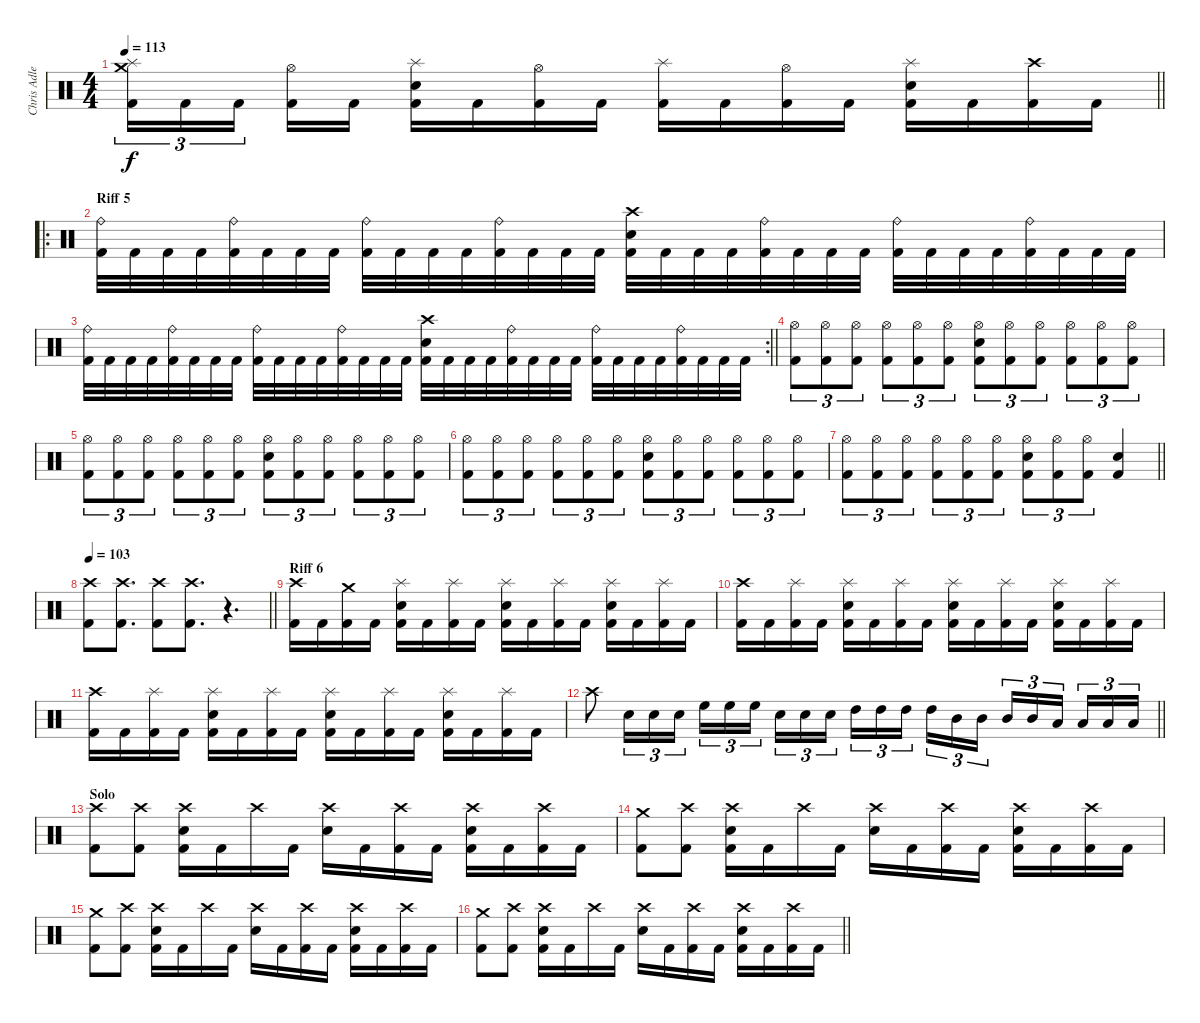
\track ("Chris Adler" "Chris Adle") {instrument percussion}
\staff {score}
\articulation defaults
\ts (4 4)
\tempo 113
\clef neutral
\barLineRight lightlight
\ks c
("Crash medium (hit)" "Splash (hit)" "Kick (hit) 2").16{tu (3 2) dy f} "Kick (hit) 2".16{tu (3 2)} "Kick (hit) 2".16{tu (3 2) beam splitsecondary} ("Hi-Hat (open)" "Kick (hit) 2").16 "Kick (hit) 2".16 ("Splash (hit)" "Electric Snare (hit)" "Kick (hit) 2").16 "Kick (hit) 2".16 ("Hi-Hat (open)" "Kick (hit) 2").16 "Kick (hit) 2".16 ("Splash (hit)" "Kick (hit) 2").16 "Kick (hit) 2".16 ("Hi-Hat (open)" "Kick (hit) 2").16 "Kick (hit) 2".16 ("Splash (hit)" "Electric Snare (hit)" "Kick (hit) 2").16 "Kick (hit) 2".16 ("Crash high (hit)" "Kick (hit) 2").16 "Kick (hit) 2".16 |
\ro
\section ("" "Riff 5")
("Ride (bell)" "Kick (hit) 2").32 "Kick (hit) 2".32 "Kick (hit) 2".32 "Kick (hit) 2".32 ("Ride (bell)" "Kick (hit) 2").32 "Kick (hit) 2".32 "Kick (hit) 2".32 "Kick (hit) 2".32 ("Ride (bell)" "Kick (hit) 2").32 "Kick (hit) 2".32 "Kick (hit) 2".32 "Kick (hit) 2".32 ("Ride (bell)" "Kick (hit) 2").32 "Kick (hit) 2".32 "Kick (hit) 2".32 "Kick (hit) 2".32 ("Crash high (hit)" "Electric Snare (hit)" "Kick (hit) 2").32 "Kick (hit) 2".32 "Kick (hit) 2".32 "Kick (hit) 2".32 ("Ride (bell)" "Kick (hit) 2").32 "Kick (hit) 2".32 "Kick (hit) 2".32 "Kick (hit) 2".32 ("Ride (bell)" "Kick (hit) 2").32 "Kick (hit) 2".32 "Kick (hit) 2".32 "Kick (hit) 2".32 ("Ride (bell)" "Kick (hit) 2").32 "Kick (hit) 2".32 "Kick (hit) 2".32 "Kick (hit) 2".32 |
\rc 2
\barLineRight lightlight
("Ride (bell)" "Kick (hit) 2").32 "Kick (hit) 2".32 "Kick (hit) 2".32 "Kick (hit) 2".32 ("Ride (bell)" "Kick (hit) 2").32 "Kick (hit) 2".32 "Kick (hit) 2".32 "Kick (hit) 2".32 ("Ride (bell)" "Kick (hit) 2").32 "Kick (hit) 2".32 "Kick (hit) 2".32 "Kick (hit) 2".32 ("Ride (bell)" "Kick (hit) 2").32 "Kick (hit) 2".32 "Kick (hit) 2".32 "Kick (hit) 2".32 ("Crash high (hit)" "Electric Snare (hit)" "Kick (hit) 2").32 "Kick (hit) 2".32 "Kick (hit) 2".32 "Kick (hit) 2".32 ("Ride (bell)" "Kick (hit) 2").32 "Kick (hit) 2".32 "Kick (hit) 2".32 "Kick (hit) 2".32 ("Ride (bell)" "Kick (hit) 2").32 "Kick (hit) 2".32 "Kick (hit) 2".32 "Kick (hit) 2".32 ("Ride (bell)" "Kick (hit) 2").32 "Kick (hit) 2".32 "Kick (hit) 2".32 "Kick (hit) 2".32 |
\section ("" "")
("Hi-Hat (open)" "Kick (hit) 2").8{tu (3 2)} ("Hi-Hat (open)" "Kick (hit) 2").8{tu (3 2)} ("Hi-Hat (open)" "Kick (hit) 2").8{tu (3 2)} ("Hi-Hat (open)" "Kick (hit) 2").8{tu (3 2)} ("Hi-Hat (open)" "Kick (hit) 2").8{tu (3 2)} ("Hi-Hat (open)" "Kick (hit) 2").8{tu (3 2)} ("Hi-Hat (open)" "Electric Snare (hit)" "Kick (hit) 2").8{tu (3 2)} ("Hi-Hat (open)" "Kick (hit) 2").8{tu (3 2)} ("Hi-Hat (open)" "Kick (hit) 2").8{tu (3 2)} ("Hi-Hat (open)" "Kick (hit) 2").8{tu (3 2)} ("Hi-Hat (open)" "Kick (hit) 2").8{tu (3 2)} ("Hi-Hat (open)" "Kick (hit) 2").8{tu (3 2)} |
("Hi-Hat (open)" "Kick (hit) 2").8{tu (3 2)} ("Hi-Hat (open)" "Kick (hit) 2").8{tu (3 2)} ("Hi-Hat (open)" "Kick (hit) 2").8{tu (3 2)} ("Hi-Hat (open)" "Kick (hit) 2").8{tu (3 2)} ("Hi-Hat (open)" "Kick (hit) 2").8{tu (3 2)} ("Hi-Hat (open)" "Kick (hit) 2").8{tu (3 2)} ("Hi-Hat (open)" "Electric Snare (hit)" "Kick (hit) 2").8{tu (3 2)} ("Hi-Hat (open)" "Kick (hit) 2").8{tu (3 2)} ("Hi-Hat (open)" "Kick (hit) 2").8{tu (3 2)} ("Hi-Hat (open)" "Kick (hit) 2").8{tu (3 2)} ("Hi-Hat (open)" "Kick (hit) 2").8{tu (3 2)} ("Hi-Hat (open)" "Kick (hit) 2").8{tu (3 2)} |
("Hi-Hat (open)" "Kick (hit) 2").8{tu (3 2)} ("Hi-Hat (open)" "Kick (hit) 2").8{tu (3 2)} ("Hi-Hat (open)" "Kick (hit) 2").8{tu (3 2)} ("Hi-Hat (open)" "Kick (hit) 2").8{tu (3 2)} ("Hi-Hat (open)" "Kick (hit) 2").8{tu (3 2)} ("Hi-Hat (open)" "Kick (hit) 2").8{tu (3 2)} ("Hi-Hat (open)" "Electric Snare (hit)" "Kick (hit) 2").8{tu (3 2)} ("Hi-Hat (open)" "Kick (hit) 2").8{tu (3 2)} ("Hi-Hat (open)" "Kick (hit) 2").8{tu (3 2)} ("Hi-Hat (open)" "Kick (hit) 2").8{tu (3 2)} ("Hi-Hat (open)" "Kick (hit) 2").8{tu (3 2)} ("Hi-Hat (open)" "Kick (hit) 2").8{tu (3 2)} |
\barLineRight lightlight
("Hi-Hat (open)" "Kick (hit) 2").8{tu (3 2)} ("Hi-Hat (open)" "Kick (hit) 2").8{tu (3 2)} ("Hi-Hat (open)" "Kick (hit) 2").8{tu (3 2)} ("Hi-Hat (open)" "Kick (hit) 2").8{tu (3 2)} ("Hi-Hat (open)" "Kick (hit) 2").8{tu (3 2)} ("Hi-Hat (open)" "Kick (hit) 2").8{tu (3 2)} ("Hi-Hat (open)" "Electric Snare (hit)" "Kick (hit) 2").8{tu (3 2)} ("Hi-Hat (open)" "Kick (hit) 2").8{tu (3 2)} ("Hi-Hat (open)" "Kick (hit) 2").8{tu (3 2)} ("Electric Snare (hit)" "Kick (hit) 2").4 |
\section ("" "")
\tempo 103
\barLineRight lightlight
("Crash high (hit)" "Kick (hit) 2").8 ("Crash high (hit)" "Kick (hit) 2").8{d} ("Crash high (hit)" "Kick (hit) 2").8 ("Crash high (hit)" "Kick (hit) 2").8{d} r.4{d} |
\section ("" "Riff 6")
("Crash high (hit)" "Kick (hit) 2").16 "Kick (hit) 2".16 ("Crash medium (hit)" "Kick (hit) 2").16 "Kick (hit) 2".16 ("Splash (hit)" "Electric Snare (hit)" "Kick (hit) 2").16 "Kick (hit) 2".16 ("Splash (hit)" "Kick (hit) 2").16 "Kick (hit) 2".16 ("Splash (hit)" "Electric Snare (hit)" "Kick (hit) 2").16 "Kick (hit) 2".16 ("Splash (hit)" "Kick (hit) 2").16 "Kick (hit) 2".16 ("Splash (hit)" "Electric Snare (hit)" "Kick (hit) 2").16 "Kick (hit) 2".16 ("Splash (hit)" "Kick (hit) 2").16 "Kick (hit) 2".16 |
("Crash high (hit)" "Kick (hit) 2").16 "Kick (hit) 2".16 ("Splash (hit)" "Kick (hit) 2").16 "Kick (hit) 2".16 ("Splash (hit)" "Electric Snare (hit)" "Kick (hit) 2").16 "Kick (hit) 2".16 ("Splash (hit)" "Kick (hit) 2").16 "Kick (hit) 2".16 ("Splash (hit)" "Electric Snare (hit)" "Kick (hit) 2").16 "Kick (hit) 2".16 ("Splash (hit)" "Kick (hit) 2").16 "Kick (hit) 2".16 ("Splash (hit)" "Electric Snare (hit)" "Kick (hit) 2").16 "Kick (hit) 2".16 ("Splash (hit)" "Kick (hit) 2").16 "Kick (hit) 2".16 |
("Crash high (hit)" "Kick (hit) 2").16 "Kick (hit) 2".16 ("Splash (hit)" "Kick (hit) 2").16 "Kick (hit) 2".16 ("Splash (hit)" "Electric Snare (hit)" "Kick (hit) 2").16 "Kick (hit) 2".16 ("Splash (hit)" "Kick (hit) 2").16 "Kick (hit) 2".16 ("Splash (hit)" "Electric Snare (hit)" "Kick (hit) 2").16 "Kick (hit) 2".16 ("Splash (hit)" "Kick (hit) 2").16 "Kick (hit) 2".16 ("Splash (hit)" "Electric Snare (hit)" "Kick (hit) 2").16 "Kick (hit) 2".16 ("Splash (hit)" "Kick (hit) 2").16 "Kick (hit) 2".16 |
\barLineRight lightlight "Crash high (hit)".8 "Electric Snare (hit)".16{tu (3 2)} "Electric Snare (hit)".16{tu (3 2)} "Electric Snare (hit)".16{tu (3 2)} "High Floor Tom (hit)".16{tu (3 2)} "High Floor Tom (hit)".16{tu (3 2)} "High Floor Tom (hit)".16{tu (3 2) beam splitsecondary} "Electric Snare (hit)".16{tu (3 2)} "Electric Snare (hit)".16{tu (3 2)} "Electric Snare (hit)".16{tu (3 2)} "High Tom (hit)".16{tu (3 2)} "High Tom (hit)".16{tu (3 2)} "High Tom (hit)".16{tu (3 2) beam splitsecondary} "High Tom (hit)".16{tu (3 2)} "Mid Tom (hit)".16{tu (3 2)} "Mid Tom (hit)".16{tu (3 2)} "Mid Tom (hit)".16{tu (3 2)} "Mid Tom (hit)".16{tu (3 2)} "Low Tom (hit)".16{tu (3 2) beam splitsecondary} "Low Tom (hit)".16{tu (3 2)} "Low Tom (hit)".16{tu (3 2)} "Low Tom (hit)".16{tu (3 2)}
|
\section ("" "Solo")
("Crash high (hit)" "Kick (hit) 2").8 ("Crash high (hit)" "Kick (hit) 2").8 ("Crash high (hit)" "Electric Snare (hit)" "Kick (hit) 2").16 "Kick (hit) 2".16 "Crash high (hit)".16 "Kick (hit) 2".16 ("Crash high (hit)" "Electric Snare (hit)").16 "Kick (hit) 2".16 ("Crash high (hit)" "Kick (hit) 2").16 "Kick (hit) 2".16 ("Crash high (hit)" "Electric Snare (hit)" "Kick (hit) 2").16 "Kick (hit) 2".16 ("Crash high (hit)" "Kick (hit) 2").16 "Kick (hit) 2".16 |
("Crash medium (hit)" "Kick (hit) 2").8 ("Crash high (hit)" "Kick (hit) 2").8 ("Crash high (hit)" "Electric Snare (hit)" "Kick (hit) 2").16 "Kick (hit) 2".16 "Crash high (hit)".16 "Kick (hit) 2".16 ("Crash high (hit)" "Electric Snare (hit)").16 "Kick (hit) 2".16 ("Crash high (hit)" "Kick (hit) 2").16 "Kick (hit) 2".16 ("Crash high (hit)" "Electric Snare (hit)" "Kick (hit) 2").16 "Kick (hit) 2".16 ("Crash high (hit)" "Kick (hit) 2").16 "Kick (hit) 2".16 |
("Crash medium (hit)" "Kick (hit) 2").8 ("Crash high (hit)" "Kick (hit) 2").8 ("Crash high (hit)" "Electric Snare (hit)" "Kick (hit) 2").16 "Kick (hit) 2".16 "Crash high (hit)".16 "Kick (hit) 2".16 ("Crash high (hit)" "Electric Snare (hit)").16 "Kick (hit) 2".16 ("Crash high (hit)" "Kick (hit) 2").16 "Kick (hit) 2".16 ("Crash high (hit)" "Electric Snare (hit)" "Kick (hit) 2").16 "Kick (hit) 2".16 ("Crash high (hit)" "Kick (hit) 2").16 "Kick (hit) 2".16 |
\barLineRight lightlight
("Crash medium (hit)" "Kick (hit) 2").8 ("Crash high (hit)" "Kick (hit) 2").8 ("Crash high (hit)" "Electric Snare (hit)" "Kick (hit) 2").16 "Kick (hit) 2".16 "Crash high (hit)".16 "Kick (hit) 2".16 ("Crash high (hit)" "Electric Snare (hit)").16 "Kick (hit) 2".16 ("Crash high (hit)" "Kick (hit) 2").16 "Kick (hit) 2".16 ("Crash high (hit)" "Electric Snare (hit)" "Kick (hit) 2").16 "Kick (hit) 2".16 ("Crash high (hit)" "Kick (hit) 2").16 "Kick (hit) 2".16
